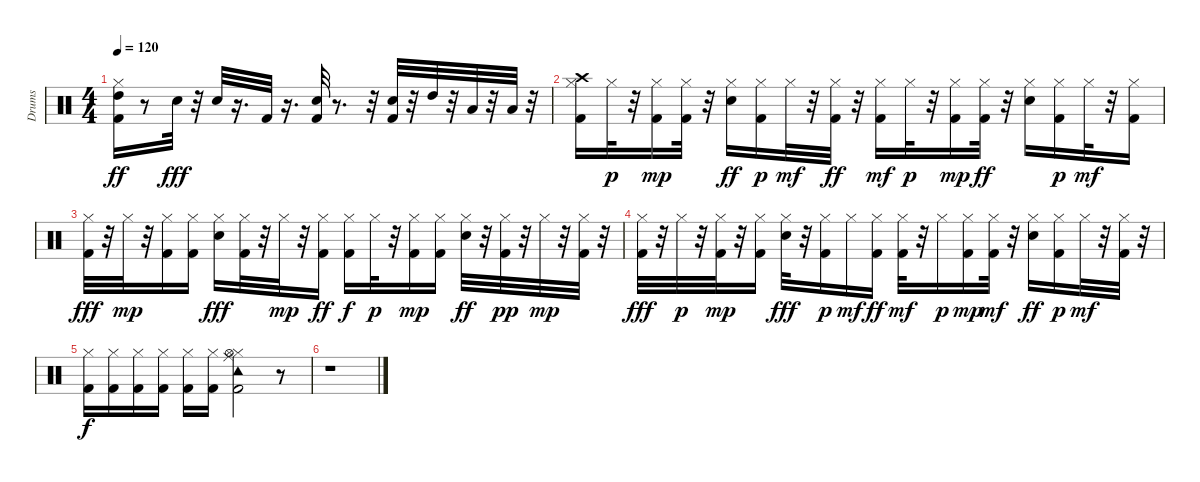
\track ("Drums" "Drums") {instrument percussion}
\staff {score}
\articulation defaults
\ts (4 4)
\tempo 120
\clef neutral
\ks c
("High Tom (hit)" "Kick (hit) 2" "Hi-Hat (closed)").16{dy ff} r.8 "Snare (hit) 2".32{dy fff} r.32 "Snare (hit) 2".32 r.16{d} "Kick (hit) 2".32 r.16{d} ("Kick (hit) 2" "Snare (hit) 2").32 r.8{d} r.32 ("Kick (hit) 2" "Snare (hit) 2").32 r.32 "High Tom (hit)".32 r.32 "Low Tom (hit)".32 r.32 "Low Floor Tom (hit)".32 r.32 |
("Kick (hit) 2" "Hi-Hat (closed)" "Crash high (hit)").16 "Hi-Hat (closed)".32{dy p} r.32 ("Kick (hit) 2" "Hi-Hat (closed)").16{dy mp} ("Kick (hit) 2" "Hi-Hat (closed)").32 r.32 ("Hi-Hat (closed)" "Snare (hit) 2").16{dy ff} ("Kick (hit) 2" "Hi-Hat (closed)").16{dy p} "Hi-Hat (closed)".32{dy mf} r.32 ("Kick (hit) 2" "Hi-Hat (closed)").32{dy ff} r.32 ("Kick (hit) 2" "Hi-Hat (closed)").16{dy mf} "Hi-Hat (closed)".32{dy p} r.32 ("Kick (hit) 2" "Hi-Hat (closed)").16{dy mp} ("Kick (hit) 2" "Hi-Hat (closed)").32{dy ff} r.32 ("Hi-Hat (closed)" "Snare (hit) 2").16 ("Kick (hit) 2" "Hi-Hat (closed)").16{dy p} "Hi-Hat (closed)".32{dy mf} r.32 ("Kick (hit) 2" "Hi-Hat (closed)").16 |
("Hi-Hat (closed)" "Kick (hit) 2").32{dy fff} r.32 "Hi-Hat (closed)".32{dy mp} r.32 ("Kick (hit) 2" "Hi-Hat (closed)").16 ("Kick (hit) 2" "Hi-Hat (closed)").16 ("Hi-Hat (closed)" "Snare (hit) 2").16{dy fff} ("Hi-Hat (closed)" "Kick (hit) 2").32 r.32 "Hi-Hat (closed)".32{dy mp} r.32 ("Kick (hit) 2" "Hi-Hat (closed)").16{dy ff} ("Hi-Hat (closed)" "Kick (hit) 2").16{dy f} "Hi-Hat (closed)".32{dy p} r.32 ("Kick (hit) 2" "Hi-Hat (closed)").16{dy mp} ("Kick (hit) 2" "Hi-Hat (closed)").16 ("Hi-Hat (closed)" "Snare (hit) 2").32{dy ff} r.32 ("Kick (hit) 2" "Hi-Hat (closed)").32{dy pp} r.32 "Hi-Hat (closed)".32{dy mp} r.32 ("Kick (hit) 2" "Hi-Hat (closed)").32 r.32 |
("Hi-Hat (closed)" "Kick (hit) 2").32{dy fff} r.32 "Hi-Hat (closed)".32{dy p} r.32 ("Kick (hit) 2" "Hi-Hat (closed)").32{dy mp} r.32 ("Kick (hit) 2" "Hi-Hat (closed)").16 ("Hi-Hat (closed)" "Snare (hit) 2").32{dy fff} r.32 ("Kick (hit) 2" "Hi-Hat (closed)").16{dy p} "Hi-Hat (closed)".16{dy mf} ("Hi-Hat (closed)" "Kick (hit) 2").16{dy ff} ("Kick (hit) 2" "Hi-Hat (closed)").32{dy mf} r.32 "Hi-Hat (closed)".16{dy p} ("Kick (hit) 2" "Hi-Hat (closed)").16{dy mp} ("Hi-Hat (closed)" "Kick (hit) 2").32{dy mf} r.32 ("Hi-Hat (closed)" "Snare (hit) 2").16{dy ff} ("Kick (hit) 2" "Hi-Hat (closed)").16{dy p} "Hi-Hat (closed)".32{dy mf} r.32 ("Kick (hit) 2" "Hi-Hat (closed)").32 r.32 |
("Kick (hit) 2" "Hi-Hat (closed)").16{dy f} ("Kick (hit) 2" "Hi-Hat (closed)").16 ("Kick (hit) 2" "Hi-Hat (closed)").16 ("Kick (hit) 2" "Hi-Hat (closed)").16 ("Kick (hit) 2" "Hi-Hat (closed)").16 ("Kick (hit) 2" "Hi-Hat (closed)").16 ("Kick (hit) 2" "Hi-Hat (closed)" "Tambourine (hit)" "Ride (middle)" "Hi-Hat (open)").2 r.8 |
r.1
